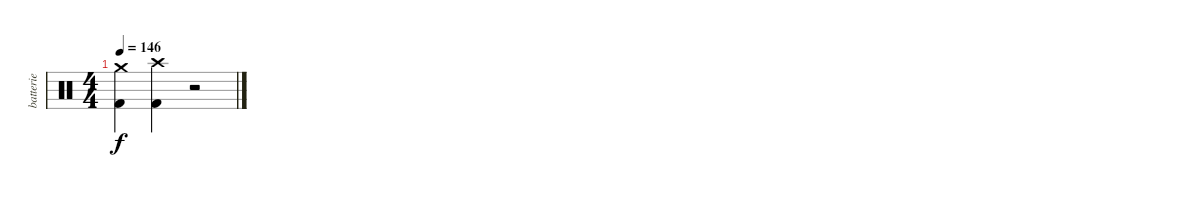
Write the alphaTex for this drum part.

\track ("batterie" "batterie") {instrument percussion}
\staff {score}
\articulation defaults
\ts (4 4)
\tempo 146
\clef neutral
\ks c
("Crash medium (hit)" "Kick (hit) 2").4{dy f} ("Crash high (hit)" "Kick (hit) 2").4 r.2
